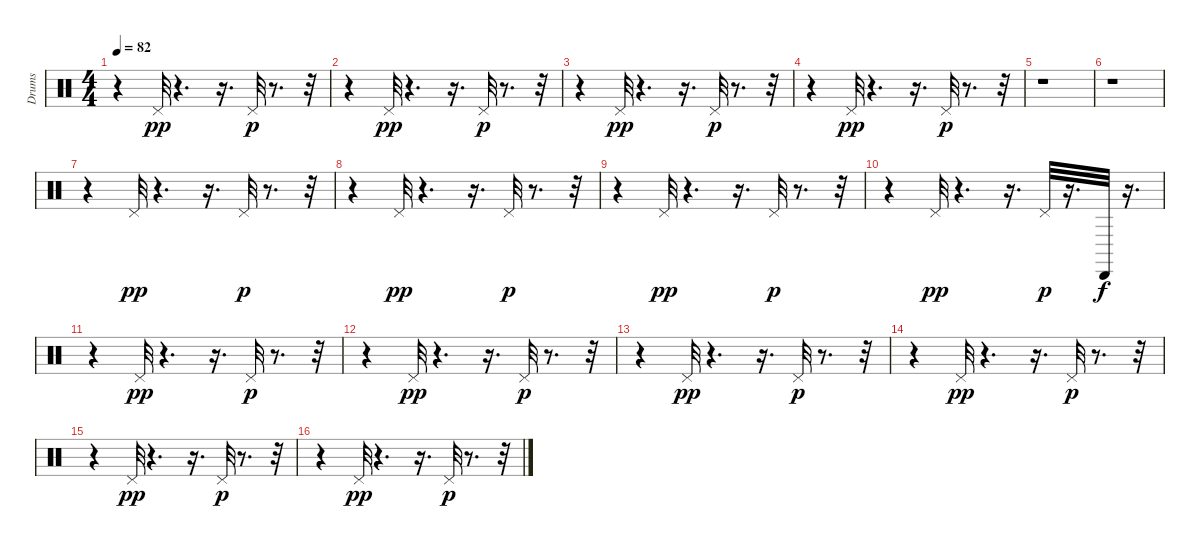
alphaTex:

\track ("Drums" "Drums") {instrument percussion}
\staff {score}
\articulation defaults
\ts (4 4)
\tempo 82
\clef neutral
\ks c
r.4{dy p} "Pedal Hi-Hat (hit)".32{dy pp} r.4{d} r.16{d} "Pedal Hi-Hat (hit)".32{dy p} r.8{d} r.32 |
r.4 "Pedal Hi-Hat (hit)".32{dy pp} r.4{d} r.16{d} "Pedal Hi-Hat (hit)".32{dy p} r.8{d} r.32 |
r.4 "Pedal Hi-Hat (hit)".32{dy pp} r.4{d} r.16{d} "Pedal Hi-Hat (hit)".32{dy p} r.8{d} r.32 |
r.4 "Pedal Hi-Hat (hit)".32{dy pp} r.4{d} r.16{d} "Pedal Hi-Hat (hit)".32{dy p} r.8{d} r.32 |
r.1 |
r.1 |
r.4 "Pedal Hi-Hat (hit)".32{dy pp} r.4{d} r.16{d} "Pedal Hi-Hat (hit)".32{dy p} r.8{d} r.32 |
r.4 "Pedal Hi-Hat (hit)".32{dy pp} r.4{d} r.16{d} "Pedal Hi-Hat (hit)".32{dy p} r.8{d} r.32 |
r.4 "Pedal Hi-Hat (hit)".32{dy pp} r.4{d} r.16{d} "Pedal Hi-Hat (hit)".32{dy p} r.8{d} r.32 |
r.4 "Pedal Hi-Hat (hit)".32{dy pp} r.4{d} r.16{d} "Pedal Hi-Hat (hit)".32{dy p} r.16{d} "Cabasa (hit)".32{dy f} r.16{d} |
r.4 "Pedal Hi-Hat (hit)".32{dy pp} r.4{d} r.16{d} "Pedal Hi-Hat (hit)".32{dy p} r.8{d} r.32 |
r.4 "Pedal Hi-Hat (hit)".32{dy pp} r.4{d} r.16{d} "Pedal Hi-Hat (hit)".32{dy p} r.8{d} r.32 |
r.4 "Pedal Hi-Hat (hit)".32{dy pp} r.4{d} r.16{d} "Pedal Hi-Hat (hit)".32{dy p} r.8{d} r.32 |
r.4 "Pedal Hi-Hat (hit)".32{dy pp} r.4{d} r.16{d} "Pedal Hi-Hat (hit)".32{dy p} r.8{d} r.32 |
r.4 "Pedal Hi-Hat (hit)".32{dy pp} r.4{d} r.16{d} "Pedal Hi-Hat (hit)".32{dy p} r.8{d} r.32 |
r.4 "Pedal Hi-Hat (hit)".32{dy pp} r.4{d} r.16{d} "Pedal Hi-Hat (hit)".32{dy p} r.8{d} r.32
